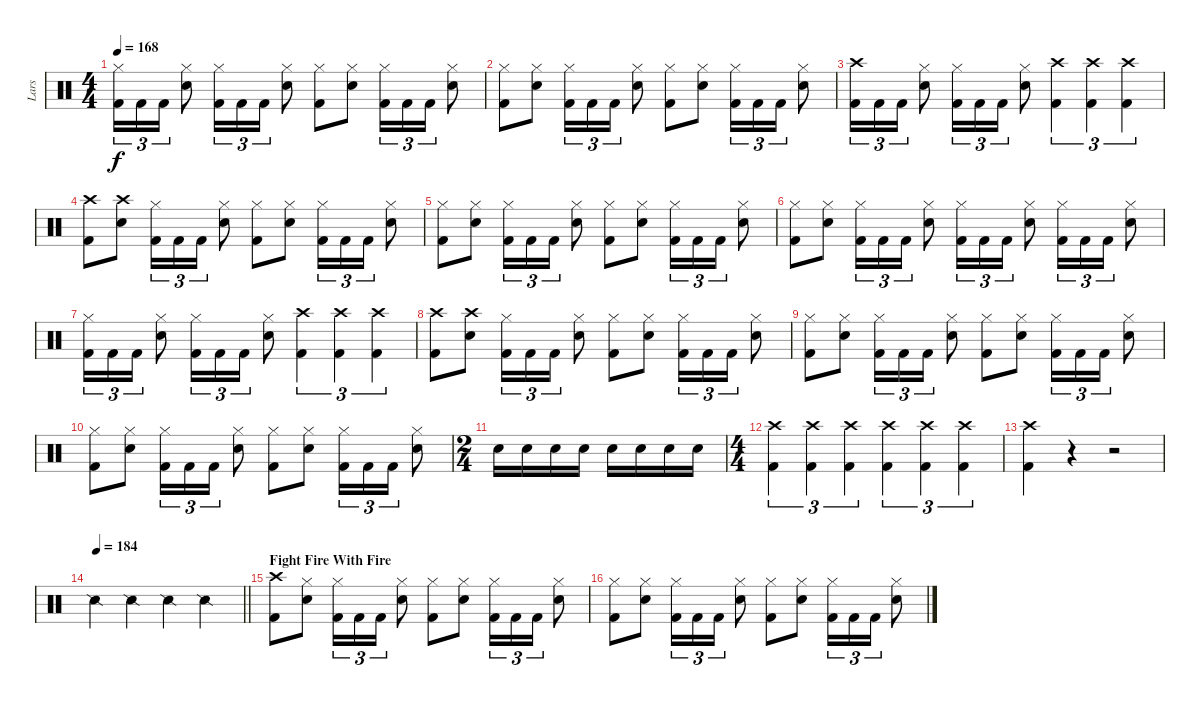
\track ("Lars" "Lars") {instrument percussion}
\staff {score}
\articulation defaults
\ts (4 4)
\tempo 168
\clef neutral
\ks c
("Hi-Hat (closed)" "Kick (hit) 2").16{tu (3 2) dy f} "Kick (hit) 2".16{tu (3 2)} "Kick (hit) 2".16{tu (3 2)} ("Hi-Hat (closed)" "Snare (hit) 2").8 ("Hi-Hat (closed)" "Kick (hit) 2").16{tu (3 2)} "Kick (hit) 2".16{tu (3 2)} "Kick (hit) 2".16{tu (3 2)} ("Hi-Hat (closed)" "Snare (hit) 2").8 ("Hi-Hat (closed)" "Kick (hit) 2").8 ("Hi-Hat (closed)" "Snare (hit) 2").8 ("Hi-Hat (closed)" "Kick (hit) 2").16{tu (3 2)} "Kick (hit) 2".16{tu (3 2)} "Kick (hit) 2".16{tu (3 2)} ("Hi-Hat (closed)" "Snare (hit) 2").8 |
("Hi-Hat (closed)" "Kick (hit) 2").8 ("Hi-Hat (closed)" "Snare (hit) 2").8 ("Hi-Hat (closed)" "Kick (hit) 2").16{tu (3 2)} "Kick (hit) 2".16{tu (3 2)} "Kick (hit) 2".16{tu (3 2)} ("Hi-Hat (closed)" "Snare (hit) 2").8 ("Hi-Hat (closed)" "Kick (hit) 2").8 ("Hi-Hat (closed)" "Snare (hit) 2").8 ("Hi-Hat (closed)" "Kick (hit) 2").16{tu (3 2)} "Kick (hit) 2".16{tu (3 2)} "Kick (hit) 2".16{tu (3 2)} ("Hi-Hat (closed)" "Snare (hit) 2").8 |
("Crash high (hit)" "Kick (hit) 2").16{tu (3 2)} "Kick (hit) 2".16{tu (3 2)} "Kick (hit) 2".16{tu (3 2)} ("Hi-Hat (closed)" "Snare (hit) 2").8 ("Hi-Hat (closed)" "Kick (hit) 2").16{tu (3 2)} "Kick (hit) 2".16{tu (3 2)} "Kick (hit) 2".16{tu (3 2)} ("Hi-Hat (closed)" "Snare (hit) 2").8 ("Crash high (hit)" "Kick (hit) 2").4{tu (3 2)} ("Crash high (hit)" "Kick (hit) 2").4{tu (3 2)} ("Crash high (hit)" "Kick (hit) 2").4{tu (3 2)} |
("Crash high (hit)" "Kick (hit) 2").8 ("Crash high (hit)" "Snare (hit) 2").8 ("Hi-Hat (closed)" "Kick (hit) 2").16{tu (3 2)} "Kick (hit) 2".16{tu (3 2)} "Kick (hit) 2".16{tu (3 2)} ("Hi-Hat (closed)" "Snare (hit) 2").8 ("Hi-Hat (closed)" "Kick (hit) 2").8 ("Hi-Hat (closed)" "Snare (hit) 2").8 ("Hi-Hat (closed)" "Kick (hit) 2").16{tu (3 2)} "Kick (hit) 2".16{tu (3 2)} "Kick (hit) 2".16{tu (3 2)} ("Hi-Hat (closed)" "Snare (hit) 2").8 |
("Hi-Hat (closed)" "Kick (hit) 2").8 ("Hi-Hat (closed)" "Snare (hit) 2").8 ("Hi-Hat (closed)" "Kick (hit) 2").16{tu (3 2)} "Kick (hit) 2".16{tu (3 2)} "Kick (hit) 2".16{tu (3 2)} ("Hi-Hat (closed)" "Snare (hit) 2").8 ("Hi-Hat (closed)" "Kick (hit) 2").8 ("Hi-Hat (closed)" "Snare (hit) 2").8 ("Hi-Hat (closed)" "Kick (hit) 2").16{tu (3 2)} "Kick (hit) 2".16{tu (3 2)} "Kick (hit) 2".16{tu (3 2)} ("Hi-Hat (closed)" "Snare (hit) 2").8 |
("Hi-Hat (closed)" "Kick (hit) 2").8 ("Hi-Hat (closed)" "Snare (hit) 2").8 ("Hi-Hat (closed)" "Kick (hit) 2").16{tu (3 2)} "Kick (hit) 2".16{tu (3 2)} "Kick (hit) 2".16{tu (3 2)} ("Hi-Hat (closed)" "Snare (hit) 2").8 ("Hi-Hat (closed)" "Kick (hit) 2").16{tu (3 2)} "Kick (hit) 2".16{tu (3 2)} "Kick (hit) 2".16{tu (3 2)} ("Hi-Hat (closed)" "Snare (hit) 2").8 ("Hi-Hat (closed)" "Kick (hit) 2").16{tu (3 2)} "Kick (hit) 2".16{tu (3 2)} "Kick (hit) 2".16{tu (3 2)} ("Hi-Hat (closed)" "Snare (hit) 2").8 |
("Hi-Hat (closed)" "Kick (hit) 2").16{tu (3 2)} "Kick (hit) 2".16{tu (3 2)} "Kick (hit) 2".16{tu (3 2)} ("Hi-Hat (closed)" "Snare (hit) 2").8 ("Hi-Hat (closed)" "Kick (hit) 2").16{tu (3 2)} "Kick (hit) 2".16{tu (3 2)} "Kick (hit) 2".16{tu (3 2)} ("Hi-Hat (closed)" "Snare (hit) 2").8 ("Crash high (hit)" "Kick (hit) 2").4{tu (3 2)} ("Crash high (hit)" "Kick (hit) 2").4{tu (3 2)} ("Crash high (hit)" "Kick (hit) 2").4{tu (3 2)} |
("Crash high (hit)" "Kick (hit) 2").8 ("Crash high (hit)" "Snare (hit) 2").8 ("Hi-Hat (closed)" "Kick (hit) 2").16{tu (3 2)} "Kick (hit) 2".16{tu (3 2)} "Kick (hit) 2".16{tu (3 2)} ("Hi-Hat (closed)" "Snare (hit) 2").8 ("Hi-Hat (closed)" "Kick (hit) 2").8 ("Hi-Hat (closed)" "Snare (hit) 2").8 ("Hi-Hat (closed)" "Kick (hit) 2").16{tu (3 2)} "Kick (hit) 2".16{tu (3 2)} "Kick (hit) 2".16{tu (3 2)} ("Hi-Hat (closed)" "Snare (hit) 2").8 |
("Hi-Hat (closed)" "Kick (hit) 2").8 ("Hi-Hat (closed)" "Snare (hit) 2").8 ("Hi-Hat (closed)" "Kick (hit) 2").16{tu (3 2)} "Kick (hit) 2".16{tu (3 2)} "Kick (hit) 2".16{tu (3 2)} ("Hi-Hat (closed)" "Snare (hit) 2").8 ("Hi-Hat (closed)" "Kick (hit) 2").8 ("Hi-Hat (closed)" "Snare (hit) 2").8 ("Hi-Hat (closed)" "Kick (hit) 2").16{tu (3 2)} "Kick (hit) 2".16{tu (3 2)} "Kick (hit) 2".16{tu (3 2)} ("Hi-Hat (closed)" "Snare (hit) 2").8 |
("Hi-Hat (closed)" "Kick (hit) 2").8 ("Hi-Hat (closed)" "Snare (hit) 2").8 ("Hi-Hat (closed)" "Kick (hit) 2").16{tu (3 2)} "Kick (hit) 2".16{tu (3 2)} "Kick (hit) 2".16{tu (3 2)} ("Hi-Hat (closed)" "Snare (hit) 2").8 ("Hi-Hat (closed)" "Kick (hit) 2").8 ("Hi-Hat (closed)" "Snare (hit) 2").8 ("Hi-Hat (closed)" "Kick (hit) 2").16{tu (3 2)} "Kick (hit) 2".16{tu (3 2)} "Kick (hit) 2".16{tu (3 2)} ("Hi-Hat (closed)" "Snare (hit) 2").8 |
\ts (2 4)
"Snare (hit) 2".16 "Snare (hit) 2".16 "Snare (hit) 2".16 "Snare (hit) 2".16 "Snare (hit) 2".16 "Snare (hit) 2".16 "Snare (hit) 2".16 "Snare (hit) 2".16 |
\ts (4 4)
("Crash high (hit)" "Kick (hit) 2").4{tu (3 2)} ("Crash high (hit)" "Kick (hit) 2").4{tu (3 2)} ("Crash high (hit)" "Kick (hit) 2").4{tu (3 2)} ("Crash high (hit)" "Kick (hit) 2").4{tu (3 2)} ("Crash high (hit)" "Kick (hit) 2").4{tu (3 2)} ("Crash high (hit)" "Kick (hit) 2").4{tu (3 2)} |
("Crash high (hit)" "Kick (hit) 2").4 r.4 r.2 |
\tempo 184
\barLineRight lightlight "Snare (side stick) 2".4 "Snare (side stick) 2".4 "Snare (side stick) 2".4 "Snare (side stick) 2".4
|
\section ("" "Fight Fire With Fire")
("Crash high (hit)" "Kick (hit) 2").8 ("Hi-Hat (closed)" "Snare (hit) 2").8 ("Hi-Hat (closed)" "Kick (hit) 2").16{tu (3 2)} "Kick (hit) 2".16{tu (3 2)} "Kick (hit) 2".16{tu (3 2)} ("Hi-Hat (closed)" "Snare (hit) 2").8 ("Hi-Hat (closed)" "Kick (hit) 2").8 ("Hi-Hat (closed)" "Snare (hit) 2").8 ("Hi-Hat (closed)" "Kick (hit) 2").16{tu (3 2)} "Kick (hit) 2".16{tu (3 2)} "Kick (hit) 2".16{tu (3 2)} ("Hi-Hat (closed)" "Snare (hit) 2").8 |
("Hi-Hat (closed)" "Kick (hit) 2").8 ("Hi-Hat (closed)" "Snare (hit) 2").8 ("Hi-Hat (closed)" "Kick (hit) 2").16{tu (3 2)} "Kick (hit) 2".16{tu (3 2)} "Kick (hit) 2".16{tu (3 2)} ("Hi-Hat (closed)" "Snare (hit) 2").8 ("Hi-Hat (closed)" "Kick (hit) 2").8 ("Hi-Hat (closed)" "Snare (hit) 2").8 ("Hi-Hat (closed)" "Kick (hit) 2").16{tu (3 2)} "Kick (hit) 2".16{tu (3 2)} "Kick (hit) 2".16{tu (3 2)} ("Hi-Hat (closed)" "Snare (hit) 2").8
